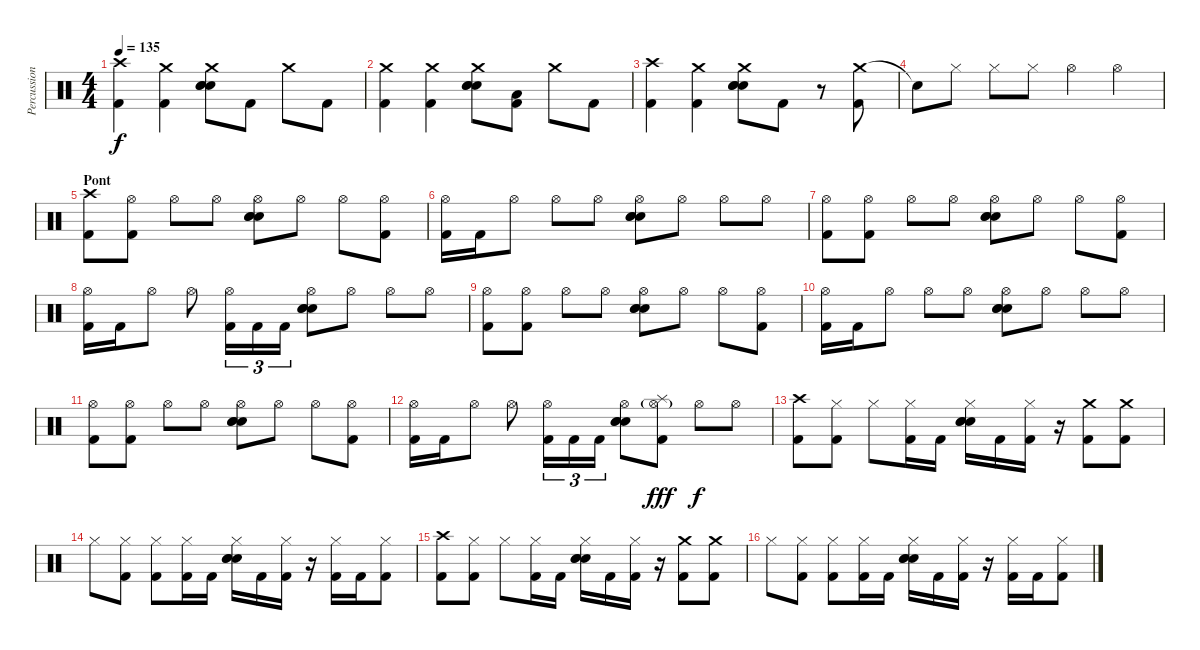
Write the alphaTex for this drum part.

\track ("Percussions" "Percussion") {instrument percussion}
\staff {score}
\articulation defaults
\ts (4 4)
\tempo 135
\clef neutral
\ks c
("Crash high (hit)" "Kick (hit) 2").4{dy f} ("Crash medium (hit)" "Kick (hit) 2").4 ("Crash medium (hit)" "Snare (hit) 2" "Electric Snare (hit)" "Electric Snare (hit)").8 "Kick (hit) 2".8 "Crash medium (hit)".8 "Kick (hit) 2".8 |
("Crash medium (hit)" "Kick (hit) 2").4 ("Crash medium (hit)" "Kick (hit) 2").4 ("Crash medium (hit)" "Snare (hit) 2" "Electric Snare (hit)" "Electric Snare (hit)").8 ("Kick (hit) 2" "Low Tom (hit)").8 "Crash medium (hit)".8 "Kick (hit) 2".8 |
("Crash high (hit)" "Kick (hit) 2").4 ("Crash medium (hit)" "Kick (hit) 2").4 ("Crash medium (hit)" "Snare (hit) 2" "Electric Snare (hit)" "Electric Snare (hit)").8 "Kick (hit) 2".8 r.8 ("Crash medium (hit)" "Kick (hit) 2").8 |
"Snare (hit)"{t}.8 "Hi-Hat (closed)".8 "Hi-Hat (closed)".8 "Hi-Hat (closed)".8 "Hi-Hat (open)".4 "Hi-Hat (open)".4 |
\section ("" "Pont")
("Crash high (hit)" "Kick (hit) 2").8 ("Hi-Hat (open)" "Kick (hit) 2").8 "Hi-Hat (open)".8 "Hi-Hat (open)".8 ("Hi-Hat (open)" "Snare (hit) 2" "Electric Snare (hit)" "Electric Snare (hit)").8 "Hi-Hat (open)".8 "Hi-Hat (open)".8 ("Hi-Hat (open)" "Kick (hit) 2").8 |
("Hi-Hat (open)" "Kick (hit) 2").16 "Kick (hit) 2".16 "Hi-Hat (open)".8 "Hi-Hat (open)".8 "Hi-Hat (open)".8 ("Hi-Hat (open)" "Snare (hit) 2" "Electric Snare (hit)" "Electric Snare (hit)").8 "Hi-Hat (open)".8 "Hi-Hat (open)".8 "Hi-Hat (open)".8 |
("Hi-Hat (open)" "Kick (hit) 2").8 ("Hi-Hat (open)" "Kick (hit) 2").8 "Hi-Hat (open)".8 "Hi-Hat (open)".8 ("Hi-Hat (open)" "Snare (hit) 2" "Electric Snare (hit)" "Electric Snare (hit)").8 "Hi-Hat (open)".8 "Hi-Hat (open)".8 ("Hi-Hat (open)" "Kick (hit) 2").8 |
("Hi-Hat (open)" "Kick (hit) 2").16 "Kick (hit) 2".16 "Hi-Hat (open)".8 "Hi-Hat (open)".8 ("Hi-Hat (open)" "Kick (hit) 2").16{tu (3 2)} "Kick (hit) 2".16{tu (3 2)} "Kick (hit) 2".16{tu (3 2)} ("Hi-Hat (open)" "Snare (hit) 2" "Electric Snare (hit)" "Electric Snare (hit)").8 "Hi-Hat (open)".8 "Hi-Hat (open)".8 "Hi-Hat (open)".8 |
("Hi-Hat (open)" "Kick (hit) 2").8 ("Hi-Hat (open)" "Kick (hit) 2").8 "Hi-Hat (open)".8 "Hi-Hat (open)".8 ("Hi-Hat (open)" "Snare (hit) 2" "Electric Snare (hit)" "Electric Snare (hit)").8 "Hi-Hat (open)".8 "Hi-Hat (open)".8 ("Hi-Hat (open)" "Kick (hit) 2").8 |
("Hi-Hat (open)" "Kick (hit) 2").16 "Kick (hit) 2".16 "Hi-Hat (open)".8 "Hi-Hat (open)".8 "Hi-Hat (open)".8 ("Hi-Hat (open)" "Snare (hit) 2" "Electric Snare (hit)" "Electric Snare (hit)").8 "Hi-Hat (open)".8 "Hi-Hat (open)".8 "Hi-Hat (open)".8 |
("Hi-Hat (open)" "Kick (hit) 2").8 ("Hi-Hat (open)" "Kick (hit) 2").8 "Hi-Hat (open)".8 "Hi-Hat (open)".8 ("Hi-Hat (open)" "Snare (hit) 2" "Electric Snare (hit)" "Electric Snare (hit)").8 "Hi-Hat (open)".8 "Hi-Hat (open)".8 ("Hi-Hat (open)" "Kick (hit) 2").8 |
("Hi-Hat (open)" "Kick (hit) 2").16 "Kick (hit) 2".16 "Hi-Hat (open)".8 "Hi-Hat (open)".8 ("Hi-Hat (open)" "Kick (hit) 2").16{tu (3 2)} "Kick (hit) 2".16{tu (3 2)} "Kick (hit) 2".16{tu (3 2)} ("Hi-Hat (open)" "Snare (hit) 2" "Electric Snare (hit)" "Electric Snare (hit)").8 ("Hi-Hat (open)"{g} "Splash (hit)" "Kick (hit) 2").8{dy fff} "Hi-Hat (open)".8{dy f} "Hi-Hat (open)".8 |
("Crash high (hit)" "Kick (hit) 2").8 ("Hi-Hat (closed)" "Kick (hit) 2").8 "Hi-Hat (closed)".8 ("Hi-Hat (closed)" "Kick (hit) 2").16 "Kick (hit) 2".16 ("Hi-Hat (closed)" "Snare (hit) 2" "Electric Snare (hit)" "Electric Snare (hit)").16 "Kick (hit) 2".16 ("Hi-Hat (closed)" "Kick (hit) 2").16 r.16 ("Crash medium (hit)" "Kick (hit) 2").8 ("Crash medium (hit)" "Kick (hit) 2").8 |
"Hi-Hat (closed)".8 ("Hi-Hat (closed)" "Kick (hit) 2").8 ("Hi-Hat (closed)" "Kick (hit) 2").8 ("Hi-Hat (closed)" "Kick (hit) 2").16 "Kick (hit) 2".16 ("Hi-Hat (closed)" "Snare (hit) 2" "Electric Snare (hit)" "Electric Snare (hit)").16 "Kick (hit) 2".16 ("Hi-Hat (closed)" "Kick (hit) 2").16 r.16 ("Hi-Hat (closed)" "Kick (hit) 2").16 "Kick (hit) 2".16 ("Hi-Hat (closed)" "Kick (hit) 2").8 |
("Crash high (hit)" "Kick (hit) 2").8 ("Hi-Hat (closed)" "Kick (hit) 2").8 "Hi-Hat (closed)".8 ("Hi-Hat (closed)" "Kick (hit) 2").16 "Kick (hit) 2".16 ("Hi-Hat (closed)" "Snare (hit) 2" "Electric Snare (hit)" "Electric Snare (hit)").16 "Kick (hit) 2".16 ("Hi-Hat (closed)" "Kick (hit) 2").16 r.16 ("Crash medium (hit)" "Kick (hit) 2").8 ("Crash medium (hit)" "Kick (hit) 2").8 |
"Hi-Hat (closed)".8 ("Hi-Hat (closed)" "Kick (hit) 2").8 ("Hi-Hat (closed)" "Kick (hit) 2").8 ("Hi-Hat (closed)" "Kick (hit) 2").16 "Kick (hit) 2".16 ("Hi-Hat (closed)" "Snare (hit) 2" "Electric Snare (hit)" "Electric Snare (hit)").16 "Kick (hit) 2".16 ("Hi-Hat (closed)" "Kick (hit) 2").16 r.16 ("Hi-Hat (closed)" "Kick (hit) 2").16 "Kick (hit) 2".16 ("Hi-Hat (closed)" "Kick (hit) 2").8
